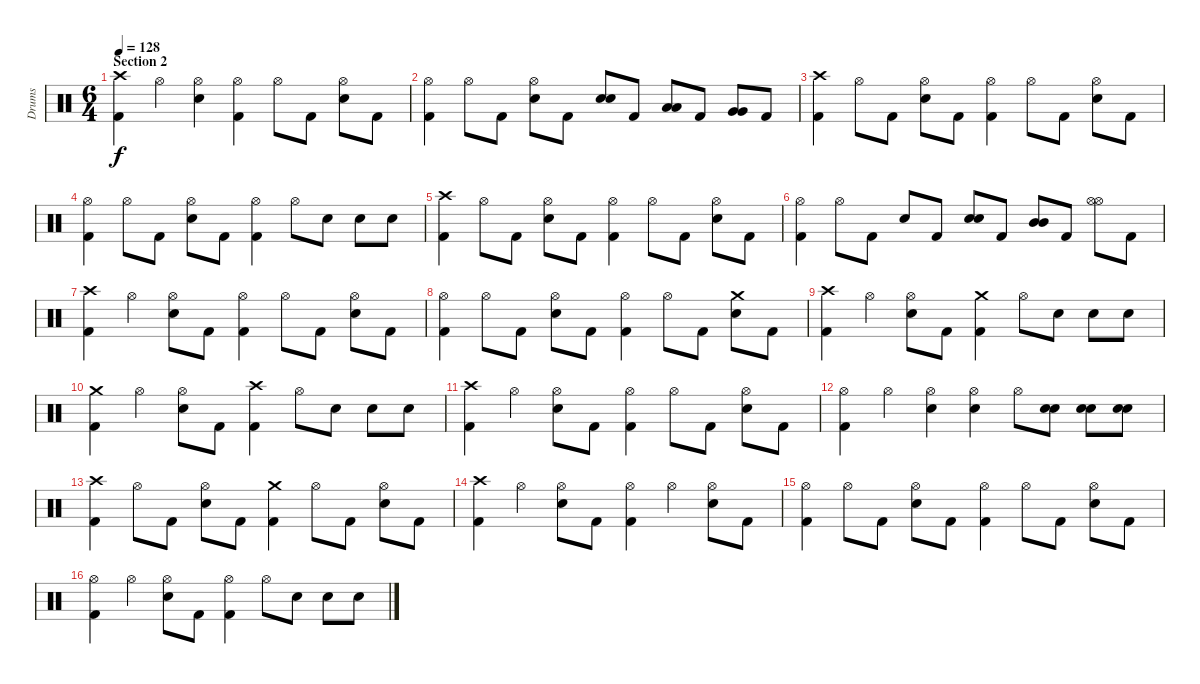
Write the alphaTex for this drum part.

\track ("Drums" "Drums") {instrument percussion}
\staff {score}
\articulation defaults
\ts (6 4)
\section ("" "Section 2")
\tempo 128
\clef neutral
\ks c
("Crash high (hit)" "Kick (hit) 2").4{dy f} "Hi-Hat (open)".4 ("Hi-Hat (open)" "Electric Snare (hit)").4 ("Hi-Hat (open)" "Kick (hit) 2").4 "Hi-Hat (open)".8 "Kick (hit) 2".8 ("Hi-Hat (open)" "Electric Snare (hit)").8 "Kick (hit) 2".8 |
("Hi-Hat (open)" "Kick (hit) 2").4 "Hi-Hat (open)".8 "Kick (hit) 2".8 ("Hi-Hat (open)" "Electric Snare (hit)").8 "Kick (hit) 2".8 ("Electric Snare (hit)" "Electric Snare (hit)").8{bu 480} "Kick (hit) 2".8 ("Low Tom (hit)" "Low Tom (hit)").8{bu 480} "Kick (hit) 2".8 ("Very Low Tom (hit)" "Very Low Tom (hit)").8{bu 480} "Kick (hit) 2".8 |
("Crash high (hit)" "Kick (hit) 2").4 "Hi-Hat (open)".8 "Kick (hit) 2".8 ("Hi-Hat (open)" "Electric Snare (hit)").8 "Kick (hit) 2".8 ("Hi-Hat (open)" "Kick (hit) 2").4 "Hi-Hat (open)".8 "Kick (hit) 2".8 ("Hi-Hat (open)" "Electric Snare (hit)").8 "Kick (hit) 2".8 |
("Hi-Hat (open)" "Kick (hit) 2").4 "Hi-Hat (open)".8 "Kick (hit) 2".8 ("Hi-Hat (open)" "Electric Snare (hit)").8 "Kick (hit) 2".8 ("Hi-Hat (open)" "Kick (hit) 2").4 "Hi-Hat (open)".8 "Electric Snare (hit)".8 "Electric Snare (hit)".8 "Electric Snare (hit)".8 |
("Crash high (hit)" "Kick (hit) 2").4 "Hi-Hat (open)".8 "Kick (hit) 2".8 ("Hi-Hat (open)" "Electric Snare (hit)").8 "Kick (hit) 2".8 ("Hi-Hat (open)" "Kick (hit) 2").4 "Hi-Hat (open)".8 "Kick (hit) 2".8 ("Hi-Hat (open)" "Electric Snare (hit)").8 "Kick (hit) 2".8 |
("Hi-Hat (open)" "Kick (hit) 2").4 "Hi-Hat (open)".8 "Kick (hit) 2".8 "Electric Snare (hit)".8 "Kick (hit) 2".8 ("Electric Snare (hit)" "Electric Snare (hit)").8{bu 120} "Kick (hit) 2".8 ("Mid Tom (hit)" "Mid Tom (hit)").8{bu 120} "Kick (hit) 2".8 ("Hi-Hat (open)" "Hi-Hat (open)").8{bu 120} "Kick (hit) 2".8 |
("Crash high (hit)" "Kick (hit) 2").4 "Hi-Hat (open)".4 ("Hi-Hat (open)" "Electric Snare (hit)").8 "Kick (hit) 2".8 ("Hi-Hat (open)" "Kick (hit) 2").4 "Hi-Hat (open)".8 "Kick (hit) 2".8 ("Hi-Hat (open)" "Electric Snare (hit)").8 "Kick (hit) 2".8 |
("Hi-Hat (open)" "Kick (hit) 2").4 "Hi-Hat (open)".8 "Kick (hit) 2".8 ("Hi-Hat (open)" "Electric Snare (hit)").8 "Kick (hit) 2".8 ("Hi-Hat (open)" "Kick (hit) 2").4 "Hi-Hat (open)".8 "Kick (hit) 2".8 ("Crash medium (hit)" "Electric Snare (hit)").8 "Kick (hit) 2".8 |
("Crash high (hit)" "Kick (hit) 2").4 "Hi-Hat (open)".4 ("Hi-Hat (open)" "Electric Snare (hit)").8 "Kick (hit) 2".8 ("Crash medium (hit)" "Kick (hit) 2").4 "Hi-Hat (open)".8 "Electric Snare (hit)".8 "Electric Snare (hit)".8 "Electric Snare (hit)".8 |
("Crash medium (hit)" "Kick (hit) 2").4 "Hi-Hat (open)".4 ("Hi-Hat (open)" "Electric Snare (hit)").8 "Kick (hit) 2".8 ("Crash high (hit)" "Kick (hit) 2").4 "Hi-Hat (open)".8 "Electric Snare (hit)".8 "Electric Snare (hit)".8 "Electric Snare (hit)".8 |
("Crash high (hit)" "Kick (hit) 2").4 "Hi-Hat (open)".4 ("Hi-Hat (open)" "Electric Snare (hit)").8 "Kick (hit) 2".8 ("Hi-Hat (open)" "Kick (hit) 2").4 "Hi-Hat (open)".8 "Kick (hit) 2".8 ("Hi-Hat (open)" "Electric Snare (hit)").8 "Kick (hit) 2".8 |
("Hi-Hat (open)" "Kick (hit) 2").4 "Hi-Hat (open)".4 ("Hi-Hat (open)" "Electric Snare (hit)").4 ("Hi-Hat (open)" "Electric Snare (hit)").4 "Hi-Hat (open)".8 ("Electric Snare (hit)" "Electric Snare (hit)").8{bu 60} ("Electric Snare (hit)" "Electric Snare (hit)").8{bu 60} ("Electric Snare (hit)" "Electric Snare (hit)").8{bu 60} |
("Crash high (hit)" "Kick (hit) 2").4 "Hi-Hat (open)".8 "Kick (hit) 2".8 ("Hi-Hat (open)" "Electric Snare (hit)").8 "Kick (hit) 2".8 ("Crash medium (hit)" "Kick (hit) 2").4 "Hi-Hat (open)".8 "Kick (hit) 2".8 ("Hi-Hat (open)" "Electric Snare (hit)").8 "Kick (hit) 2".8 |
("Crash high (hit)" "Kick (hit) 2").4 "Hi-Hat (open)".4 ("Hi-Hat (open)" "Electric Snare (hit)").8 "Kick (hit) 2".8 ("Hi-Hat (open)" "Kick (hit) 2").4 "Hi-Hat (open)".4 ("Hi-Hat (open)" "Electric Snare (hit)").8 "Kick (hit) 2".8 |
("Hi-Hat (open)" "Kick (hit) 2").4 "Hi-Hat (open)".8 "Kick (hit) 2".8 ("Hi-Hat (open)" "Electric Snare (hit)").8 "Kick (hit) 2".8 ("Hi-Hat (open)" "Kick (hit) 2").4 "Hi-Hat (open)".8 "Kick (hit) 2".8 ("Hi-Hat (open)" "Electric Snare (hit)").8 "Kick (hit) 2".8 |
("Hi-Hat (open)" "Kick (hit) 2").4 "Hi-Hat (open)".4 ("Hi-Hat (open)" "Electric Snare (hit)").8 "Kick (hit) 2".8 ("Hi-Hat (open)" "Kick (hit) 2").4 "Hi-Hat (open)".8 "Electric Snare (hit)".8 "Electric Snare (hit)".8 "Electric Snare (hit)".8
